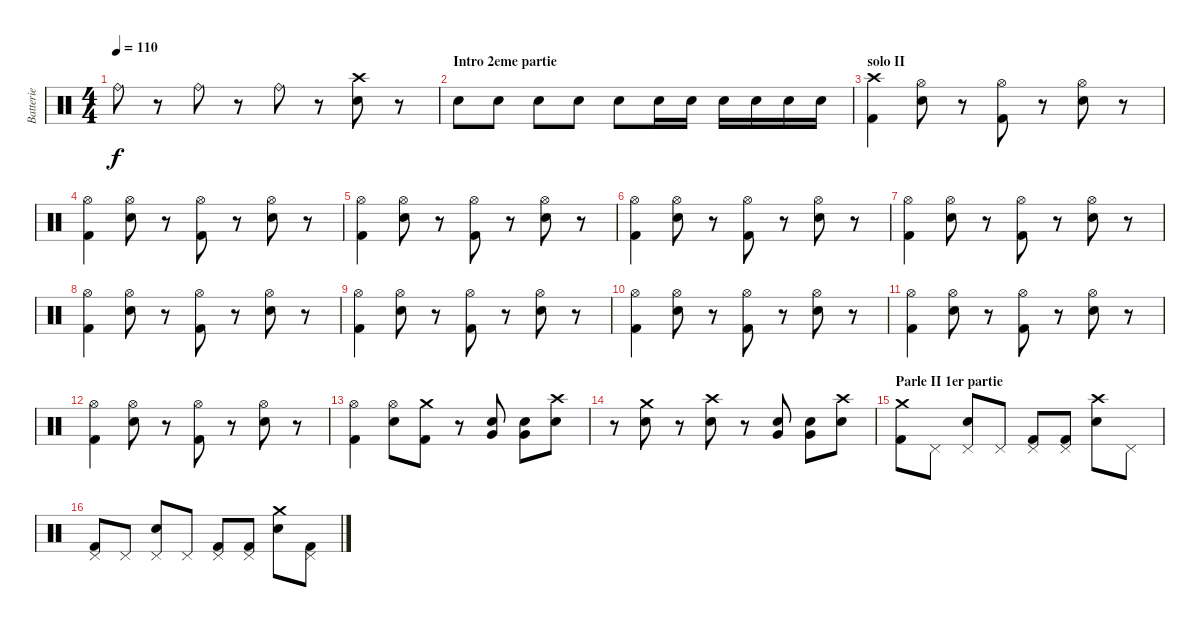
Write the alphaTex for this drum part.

\track ("Batterie" "Batterie") {instrument percussion}
\staff {score}
\articulation defaults
\ts (4 4)
\tempo 110
\clef neutral
\ks c "Ride (bell)".8{dy f}
r.8 "Ride (bell)".8 r.8 "Ride (bell)".8 r.8 ("Crash high (hit)" "Electric Snare (hit)").8 r.8 |
\section ("" "Intro 2eme partie")
"Electric Snare (hit)".8 "Electric Snare (hit)".8 "Electric Snare (hit)".8 "Electric Snare (hit)".8 "Electric Snare (hit)".8 "Electric Snare (hit)".16 "Electric Snare (hit)".16 "Electric Snare (hit)".16 "Electric Snare (hit)".16 "Electric Snare (hit)".16 "Electric Snare (hit)".16 |
\section ("" "solo II")
("Crash high (hit)" "Kick (hit) 2").4 ("Hi-Hat (open)" "Electric Snare (hit)").8 r.8 ("Hi-Hat (open)" "Kick (hit) 2").8 r.8 ("Hi-Hat (open)" "Electric Snare (hit)").8 r.8 |
("Hi-Hat (open)" "Kick (hit) 2").4 ("Hi-Hat (open)" "Electric Snare (hit)").8 r.8 ("Hi-Hat (open)" "Kick (hit) 2").8 r.8 ("Hi-Hat (open)" "Electric Snare (hit)").8 r.8 |
("Hi-Hat (open)" "Kick (hit) 2").4 ("Hi-Hat (open)" "Electric Snare (hit)").8 r.8 ("Hi-Hat (open)" "Kick (hit) 2").8 r.8 ("Hi-Hat (open)" "Electric Snare (hit)").8 r.8 |
("Hi-Hat (open)" "Kick (hit) 2").4 ("Hi-Hat (open)" "Electric Snare (hit)").8 r.8 ("Hi-Hat (open)" "Kick (hit) 2").8 r.8 ("Hi-Hat (open)" "Electric Snare (hit)").8 r.8 |
("Hi-Hat (open)" "Kick (hit) 2").4 ("Hi-Hat (open)" "Electric Snare (hit)").8 r.8 ("Hi-Hat (open)" "Kick (hit) 2").8 r.8 ("Hi-Hat (open)" "Electric Snare (hit)").8 r.8 |
("Hi-Hat (open)" "Kick (hit) 2").4 ("Hi-Hat (open)" "Electric Snare (hit)").8 r.8 ("Hi-Hat (open)" "Kick (hit) 2").8 r.8 ("Hi-Hat (open)" "Electric Snare (hit)").8 r.8 |
("Hi-Hat (open)" "Kick (hit) 2").4 ("Hi-Hat (open)" "Electric Snare (hit)").8 r.8 ("Hi-Hat (open)" "Kick (hit) 2").8 r.8 ("Hi-Hat (open)" "Electric Snare (hit)").8 r.8 |
("Hi-Hat (open)" "Kick (hit) 2").4 ("Hi-Hat (open)" "Electric Snare (hit)").8 r.8 ("Hi-Hat (open)" "Kick (hit) 2").8 r.8 ("Hi-Hat (open)" "Electric Snare (hit)").8 r.8 |
("Hi-Hat (open)" "Kick (hit) 2").4 ("Hi-Hat (open)" "Electric Snare (hit)").8 r.8 ("Hi-Hat (open)" "Kick (hit) 2").8 r.8 ("Hi-Hat (open)" "Electric Snare (hit)").8 r.8 |
("Hi-Hat (open)" "Kick (hit) 2").4 ("Hi-Hat (open)" "Electric Snare (hit)").8 r.8 ("Hi-Hat (open)" "Kick (hit) 2").8 r.8 ("Hi-Hat (open)" "Electric Snare (hit)").8 r.8 |
("Hi-Hat (open)" "Kick (hit) 2").4 ("Hi-Hat (open)" "Electric Snare (hit)").8 ("Crash medium (hit)" "Kick (hit) 2").8 r.8 ("Electric Snare (hit)" "Very Low Tom (hit)").8 ("Electric Snare (hit)" "Very Low Tom (hit)").8 ("Crash high (hit)" "Electric Snare (hit)").8 |
r.8 ("Crash medium (hit)" "Electric Snare (hit)").8 r.8 ("Crash high (hit)" "Electric Snare (hit)").8 r.8 ("Very Low Tom (hit)" "Electric Snare (hit)").8 ("Very Low Tom (hit)" "Electric Snare (hit)").8 ("Crash high (hit)" "Electric Snare (hit)").8 |
\section ("" "Parle II 1er partie")
("Crash medium (hit)" "Kick (hit) 2").8 "Pedal Hi-Hat (hit)".8 ("Pedal Hi-Hat (hit)" "Electric Snare (hit)").8 "Pedal Hi-Hat (hit)".8 ("Pedal Hi-Hat (hit)" "Kick (hit) 2").8 ("Pedal Hi-Hat (hit)" "Kick (hit) 2").8 ("Crash high (hit)" "Electric Snare (hit)").8 "Pedal Hi-Hat (hit)".8 |
("Pedal Hi-Hat (hit)" "Kick (hit) 2").8 "Pedal Hi-Hat (hit)".8 ("Pedal Hi-Hat (hit)" "Electric Snare (hit)").8 "Pedal Hi-Hat (hit)".8 ("Pedal Hi-Hat (hit)" "Kick (hit) 2").8 ("Pedal Hi-Hat (hit)" "Kick (hit) 2").8 ("Crash medium (hit)" "Electric Snare (hit)").8 ("Pedal Hi-Hat (hit)" "Kick (hit) 2").8
